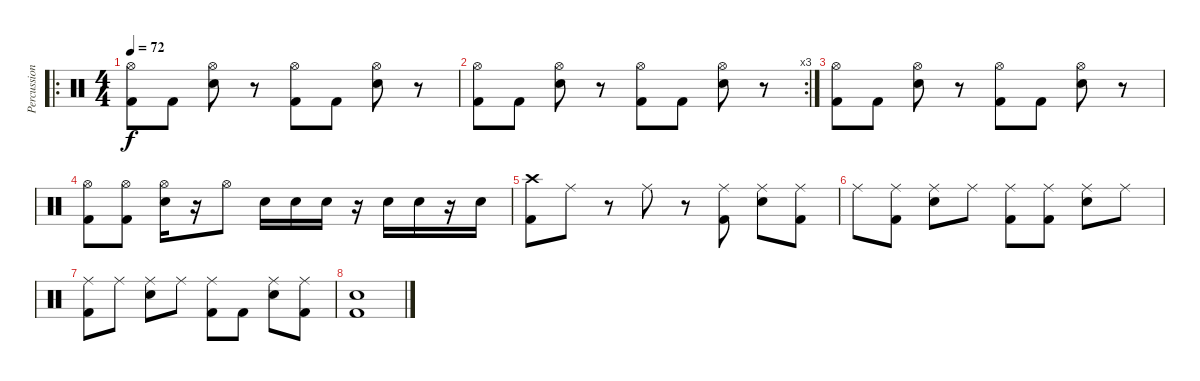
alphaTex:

\track ("Percussion" "Percussion") {instrument percussion}
\staff {score}
\articulation defaults
\ro
\ts (4 4)
\tempo 72
\clef neutral
\ks c
("Hi-Hat (open)" "Kick (hit) 2").8{dy f} "Kick (hit) 2".8 ("Hi-Hat (open)" "Snare (hit) 2").8 r.8 ("Hi-Hat (open)" "Kick (hit) 2").8 "Kick (hit) 2".8 ("Hi-Hat (open)" "Snare (hit) 2").8 r.8 |
\rc 3
("Hi-Hat (open)" "Kick (hit) 2").8 "Kick (hit) 2".8 ("Hi-Hat (open)" "Snare (hit) 2").8 r.8 ("Hi-Hat (open)" "Kick (hit) 2").8 "Kick (hit) 2".8 ("Hi-Hat (open)" "Snare (hit) 2").8 r.8 |
("Hi-Hat (open)" "Kick (hit) 2").8 "Kick (hit) 2".8 ("Hi-Hat (open)" "Snare (hit) 2").8 r.8 ("Hi-Hat (open)" "Kick (hit) 2").8 "Kick (hit) 2".8 ("Hi-Hat (open)" "Snare (hit) 2").8 r.8 |
("Hi-Hat (open)" "Kick (hit) 2").8 ("Hi-Hat (open)" "Kick (hit) 2").8 ("Hi-Hat (open)" "Snare (hit) 2").16 r.16 "Hi-Hat (open)".8 "Snare (hit) 2".16 "Snare (hit) 2".16 "Snare (hit) 2".16 r.16 "Snare (hit) 2".16 "Snare (hit) 2".16 r.16 "Snare (hit) 2".16 |
("Crash high (hit)" "Kick (hit) 2").8 "Ride (middle)".8 r.8 "Ride (middle)".8 r.8 ("Ride (middle)" "Kick (hit) 2").8 ("Ride (middle)" "Snare (hit) 2").8 ("Ride (middle)" "Kick (hit) 2").8 |
"Ride (middle)".8 ("Ride (middle)" "Kick (hit) 2").8 ("Ride (middle)" "Snare (hit) 2").8 "Ride (middle)".8 ("Ride (middle)" "Kick (hit) 2").8 ("Ride (middle)" "Kick (hit) 2").8 ("Ride (middle)" "Snare (hit) 2").8 "Ride (middle)".8 |
("Ride (middle)" "Kick (hit) 2").8 "Ride (middle)".8 ("Ride (middle)" "Snare (hit) 2").8 "Ride (middle)".8 ("Ride (middle)" "Kick (hit) 2").8 "Kick (hit) 2".8 ("Ride (middle)" "Snare (hit) 2").8 ("Ride (middle)" "Kick (hit) 2").8 |
("Snare (hit) 2" "Kick (hit) 2").1
